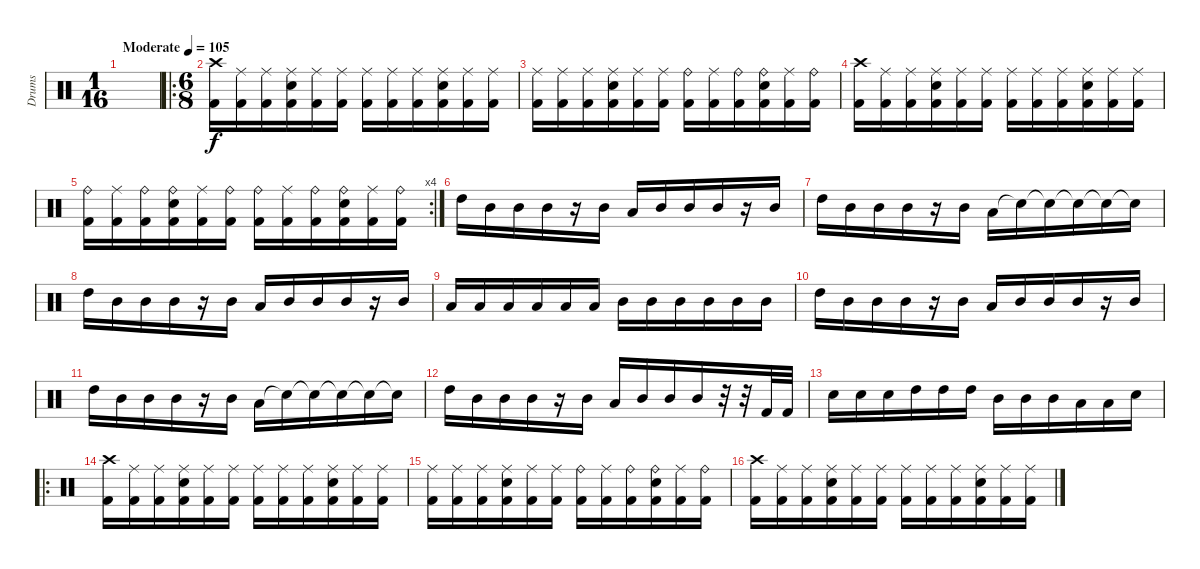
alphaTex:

\track ("Drums" "Drums") {instrument percussion}
\staff {score}
\articulation defaults
\ts (1 16)
\tempo (105 "Moderate")
\clef neutral
\ks c
|
\ro
\ts (6 8)
("Crash high (hit)" "Kick (hit) 2").16 ("Ride (middle)" "Kick (hit) 2").16 ("Ride (middle)" "Kick (hit) 2").16 ("Ride (middle)" "Snare (hit) 2" "Kick (hit) 2").16 ("Ride (middle)" "Kick (hit) 2").16 ("Ride (middle)" "Kick (hit) 2").16 ("Ride (middle)" "Kick (hit) 2").16 ("Ride (middle)" "Kick (hit) 2").16 ("Ride (middle)" "Kick (hit) 2").16 ("Ride (middle)" "Snare (hit) 2" "Kick (hit) 2").16 ("Ride (middle)" "Kick (hit) 2").16 ("Ride (middle)" "Kick (hit) 2").16 |
("Ride (middle)" "Kick (hit) 2").16 ("Ride (middle)" "Kick (hit) 2").16 ("Ride (middle)" "Kick (hit) 2").16 ("Ride (middle)" "Snare (hit) 2" "Kick (hit) 2").16 ("Ride (middle)" "Kick (hit) 2").16 ("Ride (middle)" "Kick (hit) 2").16 ("Ride (bell)" "Kick (hit) 2").16 ("Ride (middle)" "Kick (hit) 2").16 ("Ride (bell)" "Kick (hit) 2").16 ("Ride (bell)" "Snare (hit) 2" "Kick (hit) 2").16 ("Ride (middle)" "Kick (hit) 2").16 ("Ride (bell)" "Kick (hit) 2").16 |
("Crash high (hit)" "Kick (hit) 2").16 ("Ride (middle)" "Kick (hit) 2").16 ("Ride (middle)" "Kick (hit) 2").16 ("Ride (middle)" "Snare (hit) 2" "Kick (hit) 2").16 ("Ride (middle)" "Kick (hit) 2").16 ("Ride (middle)" "Kick (hit) 2").16 ("Ride (middle)" "Kick (hit) 2").16 ("Ride (middle)" "Kick (hit) 2").16 ("Ride (middle)" "Kick (hit) 2").16 ("Ride (middle)" "Snare (hit) 2" "Kick (hit) 2").16 ("Ride (middle)" "Kick (hit) 2").16 ("Ride (middle)" "Kick (hit) 2").16 |
\rc 4
("Ride (bell)" "Kick (hit) 2").16 ("Ride (middle)" "Kick (hit) 2").16 ("Ride (bell)" "Kick (hit) 2").16 ("Ride (bell)" "Snare (hit) 2" "Kick (hit) 2").16 ("Ride (middle)" "Kick (hit) 2").16 ("Ride (bell)" "Kick (hit) 2").16 ("Ride (bell)" "Kick (hit) 2").16 ("Ride (middle)" "Kick (hit) 2").16 ("Ride (bell)" "Kick (hit) 2").16 ("Ride (bell)" "Snare (hit) 2" "Kick (hit) 2").16 ("Ride (middle)" "Kick (hit) 2").16 ("Ride (bell)" "Kick (hit) 2").16 |
"High Tom (hit)".16 "Mid Tom (hit)".16 "Mid Tom (hit)".16 "Mid Tom (hit)".16 r.16 "Mid Tom (hit)".16 "Low Tom (hit)".16 "Mid Tom (hit)".16 "Mid Tom (hit)".16 "Mid Tom (hit)".16 r.16 "Mid Tom (hit)".16 |
"High Tom (hit)".16 "Mid Tom (hit)".16 "Mid Tom (hit)".16 "Mid Tom (hit)".16 r.16 "Mid Tom (hit)".16 "Low Tom (hit)".16 "Snare (hit)"{t}.16 "Snare (hit)"{t}.16 "Snare (hit)"{t}.16 "Snare (hit)"{t}.16 "Snare (hit)"{t}.16 |
"High Tom (hit)".16 "Mid Tom (hit)".16 "Mid Tom (hit)".16 "Mid Tom (hit)".16 r.16 "Mid Tom (hit)".16 "Low Tom (hit)".16 "Mid Tom (hit)".16 "Mid Tom (hit)".16 "Mid Tom (hit)".16 r.16 "Mid Tom (hit)".16 |
"Low Tom (hit)".16 "Low Tom (hit)".16 "Low Tom (hit)".16 "Low Tom (hit)".16 "Low Tom (hit)".16 "Low Tom (hit)".16 "Mid Tom (hit)".16 "Mid Tom (hit)".16 "Mid Tom (hit)".16 "Mid Tom (hit)".16 "Mid Tom (hit)".16 "Mid Tom (hit)".16 |
"High Tom (hit)".16 "Mid Tom (hit)".16 "Mid Tom (hit)".16 "Mid Tom (hit)".16 r.16 "Mid Tom (hit)".16 "Low Tom (hit)".16 "Mid Tom (hit)".16 "Mid Tom (hit)".16 "Mid Tom (hit)".16 r.16 "Mid Tom (hit)".16 |
"High Tom (hit)".16 "Mid Tom (hit)".16 "Mid Tom (hit)".16 "Mid Tom (hit)".16 r.16 "Mid Tom (hit)".16 "Low Tom (hit)".16 "Snare (hit)"{t}.16 "Snare (hit)"{t}.16 "Snare (hit)"{t}.16 "Snare (hit)"{t}.16 "Snare (hit)"{t}.16 |
"High Tom (hit)".16 "Mid Tom (hit)".16 "Mid Tom (hit)".16 "Mid Tom (hit)".16 r.16 "Mid Tom (hit)".16 "Low Tom (hit)".16 "Mid Tom (hit)".16 "Mid Tom (hit)".16 "Mid Tom (hit)".16 r.32 r.32 "Kick (hit) 2".32 "Kick (hit) 2".32 |
"Snare (hit) 2".16 "Snare (hit) 2".16 "Snare (hit) 2".16 "High Tom (hit)".16 "High Tom (hit)".16 "High Tom (hit)".16 "Mid Tom (hit)".16 "Mid Tom (hit)".16 "Mid Tom (hit)".16 "Low Tom (hit)".16 "Low Tom (hit)".16 "Snare (hit) 2".16 |
\ro
("Crash high (hit)" "Kick (hit) 2").16 ("Ride (middle)" "Kick (hit) 2").16 ("Ride (middle)" "Kick (hit) 2").16 ("Ride (middle)" "Snare (hit) 2" "Kick (hit) 2").16 ("Ride (middle)" "Kick (hit) 2").16 ("Ride (middle)" "Kick (hit) 2").16 ("Ride (middle)" "Kick (hit) 2").16 ("Ride (middle)" "Kick (hit) 2").16 ("Ride (middle)" "Kick (hit) 2").16 ("Ride (middle)" "Snare (hit) 2" "Kick (hit) 2").16 ("Ride (middle)" "Kick (hit) 2").16 ("Ride (middle)" "Kick (hit) 2").16 |
("Ride (middle)" "Kick (hit) 2").16 ("Ride (middle)" "Kick (hit) 2").16 ("Ride (middle)" "Kick (hit) 2").16 ("Ride (middle)" "Snare (hit) 2" "Kick (hit) 2").16 ("Ride (middle)" "Kick (hit) 2").16 ("Ride (middle)" "Kick (hit) 2").16 ("Ride (bell)" "Kick (hit) 2").16 ("Ride (middle)" "Kick (hit) 2").16 ("Ride (bell)" "Kick (hit) 2").16 ("Ride (bell)" "Snare (hit) 2" "Kick (hit) 2").16 ("Ride (middle)" "Kick (hit) 2").16 ("Ride (bell)" "Kick (hit) 2").16 |
("Crash high (hit)" "Kick (hit) 2").16 ("Ride (middle)" "Kick (hit) 2").16 ("Ride (middle)" "Kick (hit) 2").16 ("Ride (middle)" "Snare (hit) 2" "Kick (hit) 2").16 ("Ride (middle)" "Kick (hit) 2").16 ("Ride (middle)" "Kick (hit) 2").16 ("Ride (middle)" "Kick (hit) 2").16 ("Ride (middle)" "Kick (hit) 2").16 ("Ride (middle)" "Kick (hit) 2").16 ("Ride (middle)" "Snare (hit) 2" "Kick (hit) 2").16 ("Ride (middle)" "Kick (hit) 2").16 ("Ride (middle)" "Kick (hit) 2").16
